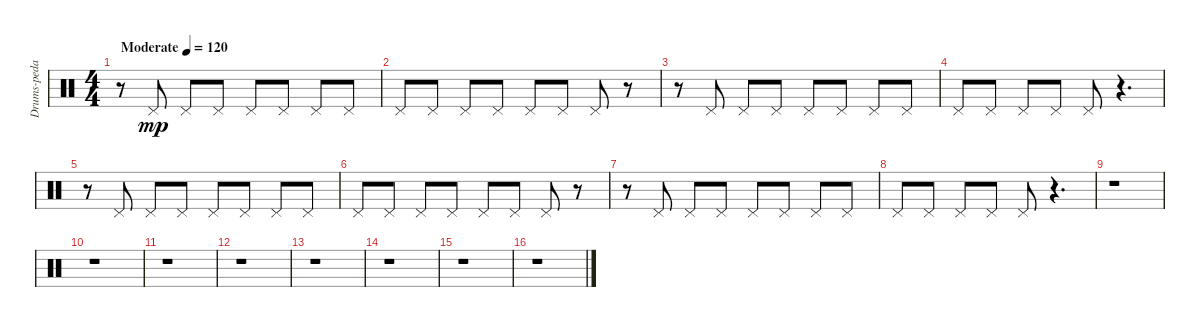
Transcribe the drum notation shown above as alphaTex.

\track ("Drums-pedal hi-hat" "Drums-peda") {instrument percussion}
\staff {score}
\articulation defaults
\ts (4 4)
\tempo (120 "Moderate")
\clef neutral
\ks c
r.8{dy mp} "Pedal Hi-Hat (hit)".8 "Pedal Hi-Hat (hit)".8 "Pedal Hi-Hat (hit)".8 "Pedal Hi-Hat (hit)".8 "Pedal Hi-Hat (hit)".8 "Pedal Hi-Hat (hit)".8 "Pedal Hi-Hat (hit)".8 |
"Pedal Hi-Hat (hit)".8 "Pedal Hi-Hat (hit)".8 "Pedal Hi-Hat (hit)".8 "Pedal Hi-Hat (hit)".8 "Pedal Hi-Hat (hit)".8 "Pedal Hi-Hat (hit)".8 "Pedal Hi-Hat (hit)".8 r.8 |
r.8 "Pedal Hi-Hat (hit)".8 "Pedal Hi-Hat (hit)".8 "Pedal Hi-Hat (hit)".8 "Pedal Hi-Hat (hit)".8 "Pedal Hi-Hat (hit)".8 "Pedal Hi-Hat (hit)".8 "Pedal Hi-Hat (hit)".8 |
"Pedal Hi-Hat (hit)".8 "Pedal Hi-Hat (hit)".8 "Pedal Hi-Hat (hit)".8 "Pedal Hi-Hat (hit)".8 "Pedal Hi-Hat (hit)".8 r.4{d} |
r.8 "Pedal Hi-Hat (hit)".8 "Pedal Hi-Hat (hit)".8 "Pedal Hi-Hat (hit)".8 "Pedal Hi-Hat (hit)".8 "Pedal Hi-Hat (hit)".8 "Pedal Hi-Hat (hit)".8 "Pedal Hi-Hat (hit)".8 |
"Pedal Hi-Hat (hit)".8 "Pedal Hi-Hat (hit)".8 "Pedal Hi-Hat (hit)".8 "Pedal Hi-Hat (hit)".8 "Pedal Hi-Hat (hit)".8 "Pedal Hi-Hat (hit)".8 "Pedal Hi-Hat (hit)".8 r.8 |
r.8 "Pedal Hi-Hat (hit)".8 "Pedal Hi-Hat (hit)".8 "Pedal Hi-Hat (hit)".8 "Pedal Hi-Hat (hit)".8 "Pedal Hi-Hat (hit)".8 "Pedal Hi-Hat (hit)".8 "Pedal Hi-Hat (hit)".8 |
"Pedal Hi-Hat (hit)".8 "Pedal Hi-Hat (hit)".8 "Pedal Hi-Hat (hit)".8 "Pedal Hi-Hat (hit)".8 "Pedal Hi-Hat (hit)".8 r.4{d} |
r.1 |
r.1 |
r.1 |
r.1 |
r.1 |
r.1 |
r.1 |
r.1
